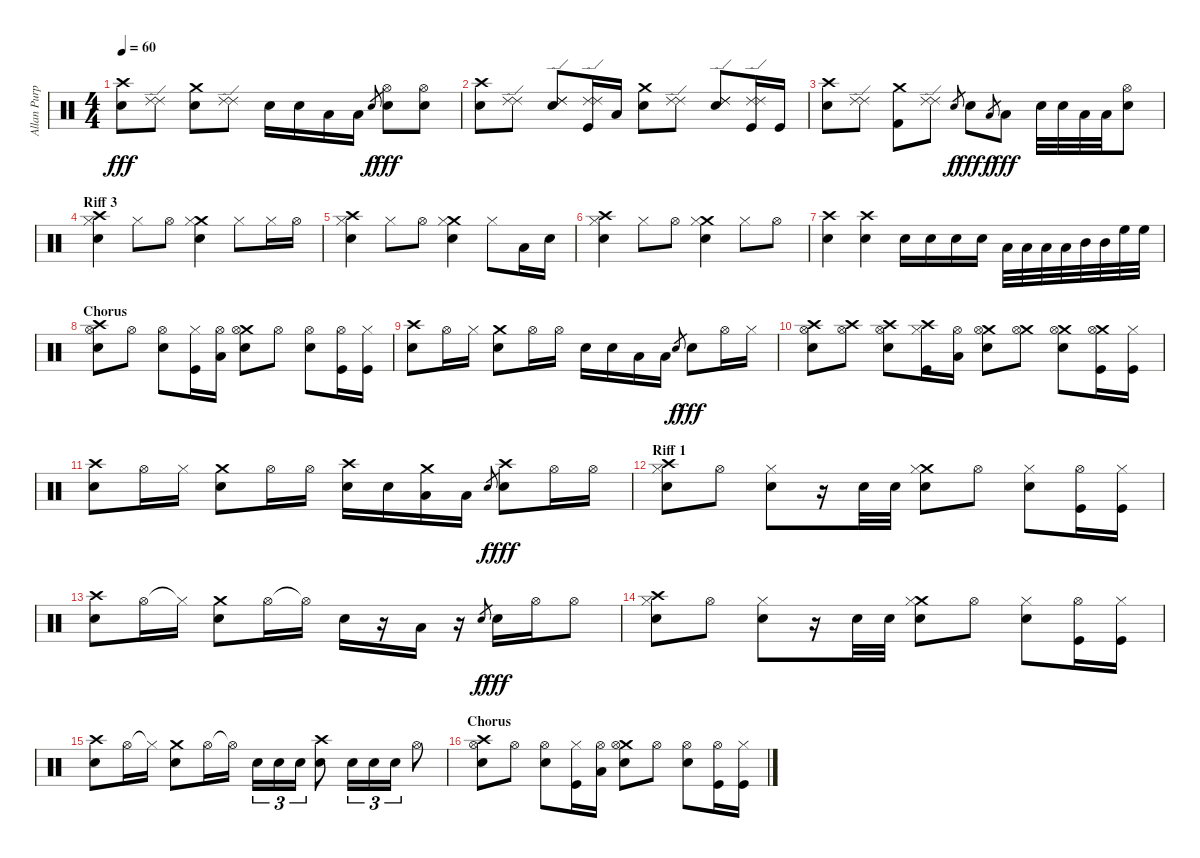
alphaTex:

\track ("Allan Purple" "Allan Purp") {instrument percussion}
\staff {score}
\articulation defaults
\ts (4 4)
\tempo 60
\clef neutral
\ks c
("Crash high (hit)" "Snare (hit) 2").8{dy fff} ("Ride (edge) 2" "Ride (edge) 2").8 ("Crash medium (hit)" "Electric Snare (hit)").8 ("Ride (edge) 2" "Ride (edge) 2").8 "Electric Snare (hit)".16 "Electric Snare (hit)".16 "Low Tom (hit)".16 "Low Tom (hit)".16 "Electric Snare (hit)".8{gr dy f} ("Hi-Hat (open)" "Electric Snare (hit)").8{dy fff} ("Hi-Hat (open)" "Snare (hit) 2").8 |
("Crash high (hit)" "Snare (hit) 2").8 ("Ride (edge) 2" "Ride (edge) 2").8 ("Ride (edge) 2" "Ride (edge) 2" "Electric Snare (hit)").8 ("Ride (edge) 2" "Ride (edge) 2" "Kick (hit)").16 "Low Tom (hit)".16 ("Crash medium (hit)" "Snare (hit) 2").8 ("Ride (edge) 2" "Ride (edge) 2").8 ("Ride (edge) 2" "Ride (edge) 2" "Electric Snare (hit)").8 ("Ride (edge) 2" "Ride (edge) 2" "Kick (hit)").16 "Kick (hit)".16 |
("Crash high (hit)" "Snare (hit) 2").8 ("Ride (edge) 2" "Ride (edge) 2").8 ("Crash medium (hit)" "Kick (hit) 2").8 ("Ride (edge) 2" "Ride (edge) 2").8 "Electric Snare (hit)".8{gr dy f} "Electric Snare (hit)".8{dy fff} "Low Tom (hit)".8{gr dy f} "Low Tom (hit)".8{dy fff} "Electric Snare (hit)".32 "Electric Snare (hit)".32 "Low Tom (hit)".32 "Low Tom (hit)".32 ("Hi-Hat (open)" "Snare (hit) 2").8 |
\section ("" "Riff 3")
("Crash high (hit)" "Hi-Hat (closed)" "Snare (hit) 2").4 "Hi-Hat (closed)".8 "Hi-Hat (open)".8 ("Crash medium (hit)" "Hi-Hat (closed)" "Snare (hit) 2").4 "Hi-Hat (closed)".8 "Hi-Hat (closed)".16 "Hi-Hat (open)".16 |
("Crash high (hit)" "Hi-Hat (closed)" "Snare (hit) 2").4 "Hi-Hat (closed)".8 "Hi-Hat (open)".8 ("Crash medium (hit)" "Hi-Hat (closed)" "Snare (hit) 2").4 "Hi-Hat (closed)".8 "Low Tom (hit)".16 "Electric Snare (hit)".16 |
("Crash high (hit)" "Hi-Hat (closed)" "Snare (hit) 2").4 "Hi-Hat (closed)".8 "Hi-Hat (open)".8 ("Crash medium (hit)" "Hi-Hat (closed)" "Snare (hit) 2").4 "Hi-Hat (closed)".8 "Hi-Hat (open)".8 |
("Crash high (hit)" "Snare (hit) 2").4 ("Crash high (hit)" "Snare (hit) 2").4 "Electric Snare (hit)".16 "Electric Snare (hit)".16 "Electric Snare (hit)".16 "Electric Snare (hit)".16 "Low Tom (hit)".32 "Low Tom (hit)".32 "Low Tom (hit)".32 "Low Tom (hit)".32 "Mid Tom (hit)".32 "Mid Tom (hit)".32 "High Floor Tom (hit)".32 "High Floor Tom (hit)".32 |
\section ("" "Chorus")
("Crash high (hit)" "Hi-Hat (open)" "Snare (hit) 2").8 "Hi-Hat (open)".8 ("Hi-Hat (open)" "Electric Snare (hit)").8 ("Hi-Hat (closed)" "Kick (hit)").16 ("Hi-Hat (open)" "Low Tom (hit)").16 ("Crash medium (hit)" "Hi-Hat (open)" "Snare (hit) 2").8 "Hi-Hat (open)".8 ("Hi-Hat (open)" "Electric Snare (hit)").8 ("Hi-Hat (open)" "Kick (hit)").16 ("Hi-Hat (closed)" "Kick (hit)").16 |
("Crash high (hit)" "Snare (hit) 2").8 "Hi-Hat (open)".16 "Hi-Hat (closed)".16 ("Crash medium (hit)" "Electric Snare (hit)").8 "Hi-Hat (open)".16 "Hi-Hat (open)".16 "Electric Snare (hit)".16 "Electric Snare (hit)".16 "Low Tom (hit)".16 "Low Tom (hit)".16 "Electric Snare (hit)".8{gr dy f} "Electric Snare (hit)".8{dy fff} "Hi-Hat (open)".16 "Hi-Hat (closed)".16 |
("Crash high (hit)" "Hi-Hat (open)" "Snare (hit) 2").8 ("Crash high (hit)" "Hi-Hat (open)").8 ("Crash high (hit)" "Hi-Hat (open)" "Electric Snare (hit)").8 ("Crash high (hit)" "Hi-Hat (closed)" "Kick (hit)").16 ("Hi-Hat (open)" "Low Tom (hit)").16 ("Crash medium (hit)" "Hi-Hat (open)" "Snare (hit) 2").8 ("Crash medium (hit)" "Hi-Hat (open)").8 ("Crash medium (hit)" "Hi-Hat (open)" "Electric Snare (hit)").8 ("Crash medium (hit)" "Hi-Hat (open)" "Kick (hit)").16 ("Hi-Hat (closed)" "Kick (hit)").16 |
("Crash high (hit)" "Snare (hit) 2").8 "Hi-Hat (open)".16 "Hi-Hat (closed)".16 ("Crash medium (hit)" "Electric Snare (hit)").8 "Hi-Hat (open)".16 "Hi-Hat (open)".16 ("Crash high (hit)" "Electric Snare (hit)").16 "Electric Snare (hit)".16 ("Crash medium (hit)" "Low Tom (hit)").16 "Low Tom (hit)".16 "Electric Snare (hit)".8{gr dy f} ("Crash high (hit)" "Electric Snare (hit)").8{dy fff} "Hi-Hat (open)".16 "Hi-Hat (open)".16 |
\section ("" "Riff 1")
("Crash high (hit)" "Hi-Hat (closed)" "Snare (hit) 2").8 "Hi-Hat (open)".8 ("Hi-Hat (closed)" "Electric Snare (hit)").8 r.16 "Snare (hit) 2".32 "Snare (hit) 2".32 ("Crash medium (hit)" "Hi-Hat (closed)" "Snare (hit) 2").8 "Hi-Hat (open)".8 ("Hi-Hat (closed)" "Electric Snare (hit)").8 ("Hi-Hat (open)" "Kick (hit)").16 ("Hi-Hat (closed)" "Kick (hit)").16 |
("Crash high (hit)" "Snare (hit) 2").8 "Hi-Hat (open)".16 "Hi-Hat (closed)"{t}.16 ("Crash medium (hit)" "Electric Snare (hit)").8 "Hi-Hat (open)".16 "Hi-Hat (open)"{t}.16 "Electric Snare (hit)".16 r.16 "Low Tom (hit)".16 r.16 "Electric Snare (hit)".8{gr dy f} "Electric Snare (hit)".16{dy fff} "Hi-Hat (open)".16 "Hi-Hat (open)".8 |
("Crash high (hit)" "Hi-Hat (closed)" "Snare (hit) 2").8 "Hi-Hat (open)".8 ("Hi-Hat (closed)" "Electric Snare (hit)").8 r.16 "Snare (hit) 2".32 "Snare (hit) 2".32 ("Crash medium (hit)" "Hi-Hat (closed)" "Snare (hit) 2").8 "Hi-Hat (open)".8 ("Hi-Hat (closed)" "Electric Snare (hit)").8 ("Hi-Hat (open)" "Kick (hit)").16 ("Hi-Hat (closed)" "Kick (hit)").16 |
("Crash high (hit)" "Snare (hit) 2").8 "Hi-Hat (open)".16 "Hi-Hat (closed)"{t}.16 ("Crash medium (hit)" "Electric Snare (hit)").8 "Hi-Hat (open)".16 "Hi-Hat (open)"{t}.16 "Electric Snare (hit)".16{tu (3 2)} "Electric Snare (hit)".16{tu (3 2)} "Electric Snare (hit)".16{tu (3 2)} ("Crash high (hit)" "Snare (hit) 2").8 "Electric Snare (hit)".16{tu (3 2)} "Electric Snare (hit)".16{tu (3 2)} "Electric Snare (hit)".16{tu (3 2)} "Hi-Hat (open)".8 |
\section ("" "Chorus")
("Crash high (hit)" "Hi-Hat (open)" "Snare (hit) 2").8 "Hi-Hat (open)".8 ("Hi-Hat (open)" "Electric Snare (hit)").8 ("Hi-Hat (closed)" "Kick (hit)").16 ("Hi-Hat (open)" "Low Tom (hit)").16 ("Crash medium (hit)" "Hi-Hat (open)" "Snare (hit) 2").8 "Hi-Hat (open)".8 ("Hi-Hat (open)" "Electric Snare (hit)").8 ("Hi-Hat (open)" "Kick (hit)").16 ("Hi-Hat (closed)" "Kick (hit)").16
